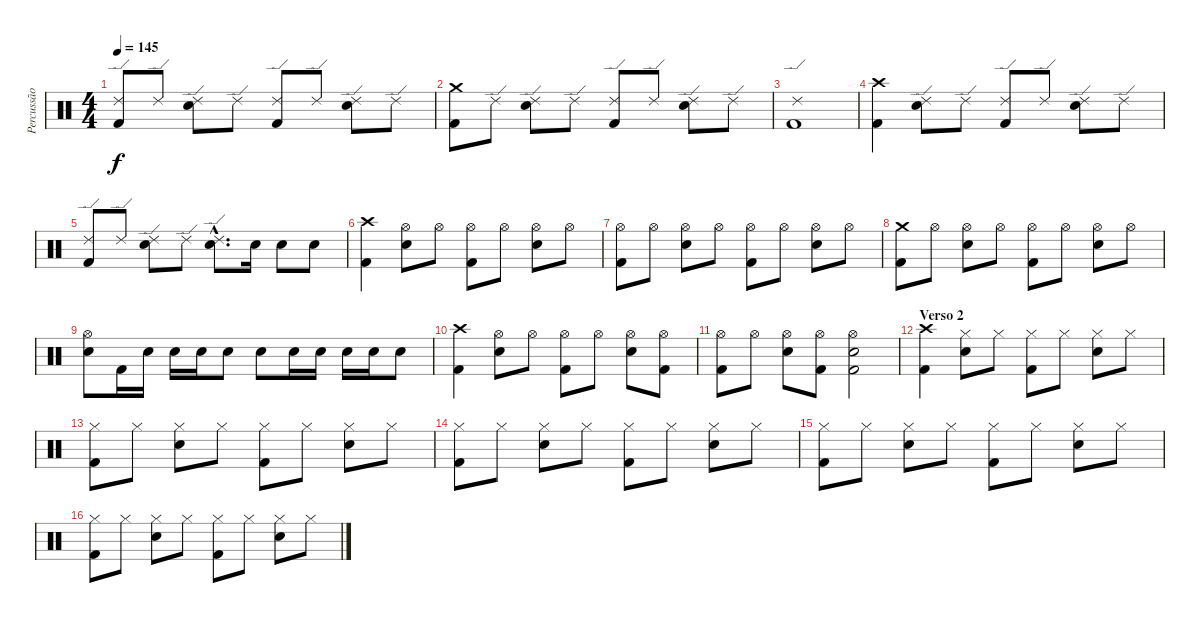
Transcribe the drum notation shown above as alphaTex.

\track ("Percussão" "Percussão") {instrument percussion}
\staff {score}
\articulation defaults
\ts (4 4)
\tempo 145
\clef neutral
\ks c
("Ride (edge) 2" "Kick (hit) 2").8{dy f} "Ride (edge) 2".8 ("Ride (edge) 2" "Electric Snare (hit)").8 "Ride (edge) 2".8 ("Ride (edge) 2" "Kick (hit) 2").8 "Ride (edge) 2".8 ("Ride (edge) 2" "Electric Snare (hit)").8 "Ride (edge) 2".8 |
("Crash medium (hit)" "Kick (hit) 2").8 "Ride (edge) 2".8 ("Ride (edge) 2" "Electric Snare (hit)").8 "Ride (edge) 2".8 ("Ride (edge) 2" "Kick (hit) 2").8 "Ride (edge) 2".8 ("Ride (edge) 2" "Electric Snare (hit)").8 "Ride (edge) 2".8 |
("Ride (edge) 2" "Kick (hit) 2").1 |
("Crash high (hit)" "Kick (hit) 2").4 ("Ride (edge) 2" "Electric Snare (hit)").8 "Ride (edge) 2".8 ("Ride (edge) 2" "Kick (hit) 2").8 "Ride (edge) 2".8 ("Ride (edge) 2" "Electric Snare (hit)").8 "Ride (edge) 2".8 |
("Ride (edge) 2" "Kick (hit) 2").8 "Ride (edge) 2".8 ("Ride (edge) 2" "Electric Snare (hit)").8 "Ride (edge) 2".8 ("Ride (edge) 2"{hac} "Electric Snare (hit)"{hac}).8{d} "Electric Snare (hit)".16 "Electric Snare (hit)".8 "Electric Snare (hit)".8 |
("Crash high (hit)" "Kick (hit) 2").4 ("Hi-Hat (open)" "Electric Snare (hit)").8 "Hi-Hat (open)".8 ("Hi-Hat (open)" "Kick (hit) 2").8 "Hi-Hat (open)".8 ("Hi-Hat (open)" "Electric Snare (hit)").8 "Hi-Hat (open)".8 |
("Hi-Hat (open)" "Kick (hit) 2").8 "Hi-Hat (open)".8 ("Hi-Hat (open)" "Electric Snare (hit)").8 "Hi-Hat (open)".8 ("Hi-Hat (open)" "Kick (hit) 2").8 "Hi-Hat (open)".8 ("Hi-Hat (open)" "Electric Snare (hit)").8 "Hi-Hat (open)".8 |
("Crash medium (hit)" "Kick (hit) 2").8 "Hi-Hat (open)".8 ("Hi-Hat (open)" "Electric Snare (hit)").8 "Hi-Hat (open)".8 ("Hi-Hat (open)" "Kick (hit) 2").8 "Hi-Hat (open)".8 ("Hi-Hat (open)" "Electric Snare (hit)").8 "Hi-Hat (open)".8 |
("Hi-Hat (open)" "Electric Snare (hit)").8 "Kick (hit) 2".16 "Electric Snare (hit)".16 "Electric Snare (hit)".16 "Electric Snare (hit)".16 "Electric Snare (hit)".8 "Electric Snare (hit)".8 "Electric Snare (hit)".16 "Electric Snare (hit)".16 "Electric Snare (hit)".16 "Electric Snare (hit)".16 "Electric Snare (hit)".8 |
("Crash high (hit)" "Kick (hit) 2").4 ("Hi-Hat (open)" "Electric Snare (hit)").8 "Hi-Hat (open)".8 ("Hi-Hat (open)" "Kick (hit) 2").8 "Hi-Hat (open)".8 ("Hi-Hat (open)" "Electric Snare (hit)").8 ("Hi-Hat (open)" "Kick (hit) 2").8 |
("Hi-Hat (open)" "Kick (hit) 2").8 "Hi-Hat (open)".8 ("Hi-Hat (open)" "Electric Snare (hit)").8 ("Hi-Hat (open)" "Kick (hit) 2").8 ("Hi-Hat (open)" "Electric Snare (hit)" "Kick (hit) 2").2 |
\section ("" "Verso 2")
("Crash high (hit)" "Kick (hit) 2").4 ("Hi-Hat (closed)" "Electric Snare (hit)").8 "Hi-Hat (closed)".8 ("Hi-Hat (closed)" "Kick (hit) 2").8 "Hi-Hat (closed)".8 ("Hi-Hat (closed)" "Electric Snare (hit)").8 "Hi-Hat (closed)".8 |
("Hi-Hat (closed)" "Kick (hit) 2").8 "Hi-Hat (closed)".8 ("Hi-Hat (closed)" "Electric Snare (hit)").8 "Hi-Hat (closed)".8 ("Hi-Hat (closed)" "Kick (hit) 2").8 "Hi-Hat (closed)".8 ("Hi-Hat (closed)" "Electric Snare (hit)").8 "Hi-Hat (closed)".8 |
("Hi-Hat (closed)" "Kick (hit) 2").8 "Hi-Hat (closed)".8 ("Hi-Hat (closed)" "Electric Snare (hit)").8 "Hi-Hat (closed)".8 ("Hi-Hat (closed)" "Kick (hit) 2").8 "Hi-Hat (closed)".8 ("Hi-Hat (closed)" "Electric Snare (hit)").8 "Hi-Hat (closed)".8 |
("Hi-Hat (closed)" "Kick (hit) 2").8 "Hi-Hat (closed)".8 ("Hi-Hat (closed)" "Electric Snare (hit)").8 "Hi-Hat (closed)".8 ("Hi-Hat (closed)" "Kick (hit) 2").8 "Hi-Hat (closed)".8 ("Hi-Hat (closed)" "Electric Snare (hit)").8 "Hi-Hat (closed)".8 |
("Hi-Hat (closed)" "Kick (hit) 2").8 "Hi-Hat (closed)".8 ("Hi-Hat (closed)" "Electric Snare (hit)").8 "Hi-Hat (closed)".8 ("Hi-Hat (closed)" "Kick (hit) 2").8 "Hi-Hat (closed)".8 ("Hi-Hat (closed)" "Electric Snare (hit)").8 "Hi-Hat (closed)".8
